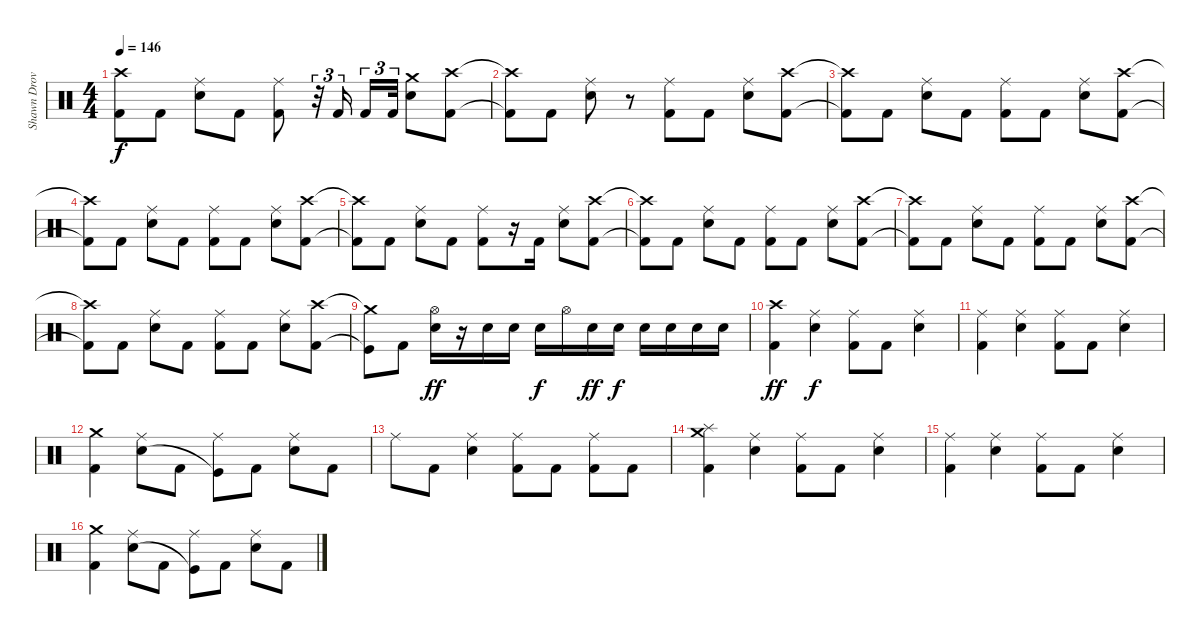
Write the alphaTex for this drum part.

\track ("Shawn Drover" "Shawn Drov") {instrument percussion}
\staff {score}
\articulation defaults
\ts (4 4)
\tempo 146
\clef neutral
\ks c
("Crash high (hit)"{t} "Kick (hit) 2"{t}).8{dy f} "Kick (hit) 2".8 ("Ride (middle)" "Snare (hit) 2").8 "Kick (hit) 2".8 ("Ride (middle)" "Kick (hit) 2").8 r.32{tu (3 2)} "Kick (hit) 2".16{tu (3 2) beam splitsecondary} "Kick (hit) 2".16{tu (3 2)} "Kick (hit) 2".32{tu (3 2)} ("Crash medium (hit)" "Snare (hit) 2").8 ("Crash high (hit)" "Kick (hit) 2").8 |
("Crash high (hit)"{t} "Kick (hit) 2"{t}).8 "Kick (hit) 2".8 ("Ride (middle)" "Snare (hit) 2").8 r.8 ("Ride (middle)" "Kick (hit) 2").8 "Kick (hit) 2".8 ("Ride (middle)" "Snare (hit) 2").8 ("Crash high (hit)" "Kick (hit) 2").8 |
("Crash high (hit)"{t} "Kick (hit) 2"{t}).8 "Kick (hit) 2".8 ("Ride (middle)" "Snare (hit) 2").8 "Kick (hit) 2".8 ("Ride (middle)" "Kick (hit) 2").8 "Kick (hit) 2".8 ("Ride (middle)" "Snare (hit) 2").8 ("Crash high (hit)" "Kick (hit) 2").8 |
("Crash high (hit)"{t} "Kick (hit) 2"{t}).8 "Kick (hit) 2".8 ("Ride (middle)" "Snare (hit) 2").8 "Kick (hit) 2".8 ("Ride (middle)" "Kick (hit) 2").8 "Kick (hit) 2".8 ("Ride (middle)" "Snare (hit) 2").8 ("Crash high (hit)" "Kick (hit) 2").8 |
("Crash high (hit)"{t} "Kick (hit) 2"{t}).8 "Kick (hit) 2".8 ("Ride (middle)" "Snare (hit) 2").8 "Kick (hit) 2".8 ("Ride (middle)" "Kick (hit) 2").8 r.16 "Kick (hit) 2".16 ("Ride (middle)" "Snare (hit) 2").8 ("Crash high (hit)" "Kick (hit) 2").8 |
("Crash high (hit)"{t} "Kick (hit) 2"{t}).8 "Kick (hit) 2".8 ("Ride (middle)" "Snare (hit) 2").8 "Kick (hit) 2".8 ("Ride (middle)" "Kick (hit) 2").8 "Kick (hit) 2".8 ("Ride (middle)" "Snare (hit) 2").8 ("Crash high (hit)" "Kick (hit) 2").8 |
("Crash high (hit)"{t} "Kick (hit) 2"{t}).8 "Kick (hit) 2".8 ("Ride (middle)" "Snare (hit) 2").8 "Kick (hit) 2".8 ("Ride (middle)" "Kick (hit) 2").8 "Kick (hit) 2".8 ("Ride (middle)" "Snare (hit) 2").8 ("Crash high (hit)" "Kick (hit) 2").8 |
("Crash high (hit)"{t} "Kick (hit) 2"{t}).8 "Kick (hit) 2".8 ("Ride (middle)" "Snare (hit) 2").8 "Kick (hit) 2".8 ("Ride (middle)" "Kick (hit) 2").8 "Kick (hit) 2".8 ("Ride (middle)" "Snare (hit) 2").8 ("Crash high (hit)" "Kick (hit) 2").8 |
("Crash medium (hit)"{t} "Kick (hit)"{t}).8 "Kick (hit) 2".8 ("Hi-Hat (open)" "Snare (hit) 2").16{dy ff} r.16 "Snare (hit) 2".16 "Snare (hit) 2".16 "Snare (hit) 2".16{dy f} "Hi-Hat (open)".16 "Snare (hit) 2".16{dy ff} "Snare (hit) 2".16{dy f} "Snare (hit) 2".16 "Snare (hit) 2".16 "Snare (hit) 2".16 "Snare (hit) 2".16 |
("Crash high (hit)" "Kick (hit) 2").4{dy ff} ("Ride (middle)" "Snare (hit) 2").4{dy f} ("Ride (middle)" "Kick (hit) 2").8 "Kick (hit) 2".8 ("Ride (middle)" "Snare (hit) 2").4 |
("Ride (middle)" "Kick (hit) 2").4 ("Ride (middle)" "Snare (hit) 2").4 ("Ride (middle)" "Kick (hit) 2").8 "Kick (hit) 2".8 ("Ride (middle)" "Snare (hit) 2").4 |
("Crash medium (hit)" "Kick (hit) 2").4 ("Ride (middle)" "Snare (hit) 2").8 "Kick (hit) 2".8 ("Ride (middle)" "Kick (hit)"{t}).8 "Kick (hit) 2".8 ("Ride (middle)" "Snare (hit) 2").8 "Kick (hit) 2".8 |
"Ride (middle)".8 "Kick (hit) 2".8 ("Ride (middle)" "Snare (hit) 2").4 ("Ride (middle)" "Kick (hit) 2").8 "Kick (hit) 2".8 ("Ride (middle)" "Kick (hit) 2").8 "Kick (hit) 2".8 |
("Crash medium (hit)" "Splash (hit)" "Kick (hit) 2").4 ("Ride (middle)" "Snare (hit) 2").4 ("Ride (middle)" "Kick (hit) 2").8 "Kick (hit) 2".8 ("Ride (middle)" "Snare (hit) 2").4 |
("Ride (middle)" "Kick (hit) 2").4 ("Ride (middle)" "Snare (hit) 2").4 ("Ride (middle)" "Kick (hit) 2").8 "Kick (hit) 2".8 ("Ride (middle)" "Snare (hit) 2").4 |
("Crash medium (hit)" "Kick (hit) 2").4 ("Ride (middle)" "Snare (hit) 2").8 "Kick (hit) 2".8 ("Ride (middle)" "Kick (hit)"{t}).8 "Kick (hit) 2".8 ("Ride (middle)" "Snare (hit) 2").8 "Kick (hit) 2".8
